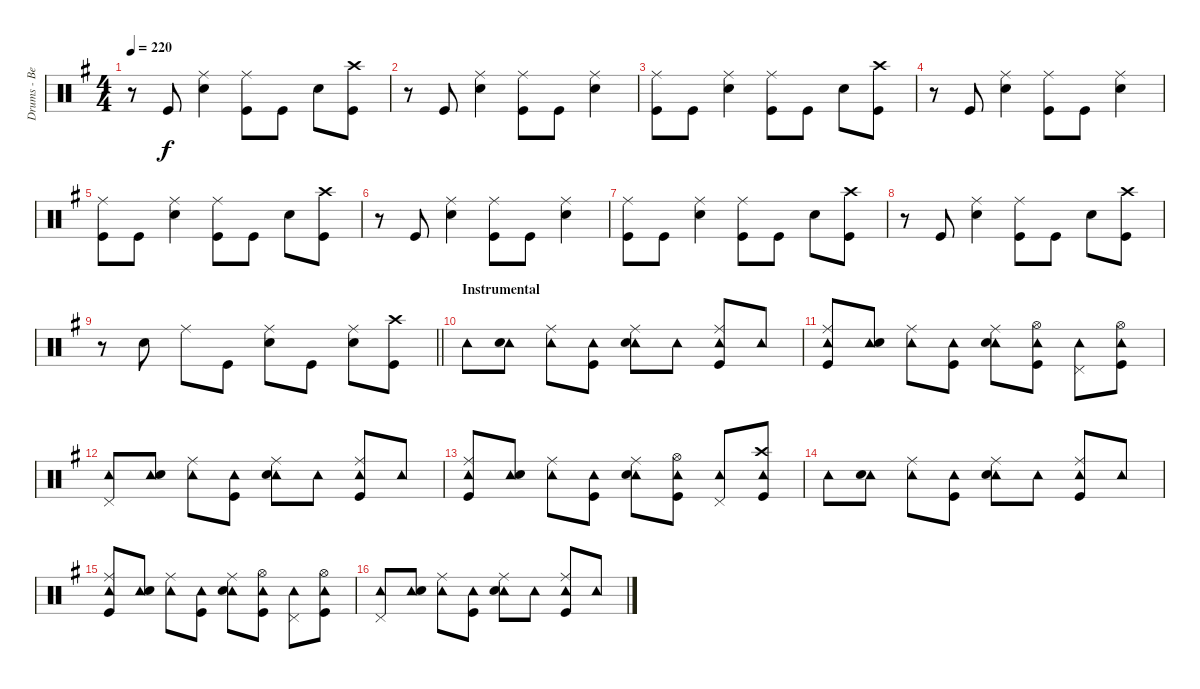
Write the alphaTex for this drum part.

\track ("Drums - Ben Johnston" "Drums - Be") {instrument percussion}
\staff {score}
\articulation defaults
\ts (4 4)
\tempo 220
\clef neutral
\ks eminor
r.8{dy f} "Kick (hit)".8 ("Ride (middle)" "Snare (hit) 2").4 ("Ride (middle)" "Kick (hit)").8 "Kick (hit)".8 "Snare (hit) 2".8 ("Crash high (hit)" "Kick (hit)").8 |
r.8 "Kick (hit)".8 ("Ride (middle)" "Snare (hit) 2").4 ("Ride (middle)" "Kick (hit)").8 "Kick (hit)".8 ("Ride (middle)" "Snare (hit) 2").4 |
("Ride (middle)" "Kick (hit)").8 "Kick (hit)".8 ("Ride (middle)" "Snare (hit) 2").4 ("Ride (middle)" "Kick (hit)").8 "Kick (hit)".8 "Snare (hit) 2".8 ("Crash high (hit)" "Kick (hit)").8 |
r.8 "Kick (hit)".8 ("Ride (middle)" "Snare (hit) 2").4 ("Ride (middle)" "Kick (hit)").8 "Kick (hit)".8 ("Ride (middle)" "Snare (hit) 2").4 |
("Ride (middle)" "Kick (hit)").8 "Kick (hit)".8 ("Ride (middle)" "Snare (hit) 2").4 ("Ride (middle)" "Kick (hit)").8 "Kick (hit)".8 "Snare (hit) 2".8 ("Crash high (hit)" "Kick (hit)").8 |
r.8 "Kick (hit)".8 ("Ride (middle)" "Snare (hit) 2").4 ("Ride (middle)" "Kick (hit)").8 "Kick (hit)".8 ("Ride (middle)" "Snare (hit) 2").4 |
("Ride (middle)" "Kick (hit)").8 "Kick (hit)".8 ("Ride (middle)" "Snare (hit) 2").4 ("Ride (middle)" "Kick (hit)").8 "Kick (hit)".8 "Snare (hit) 2".8 ("Crash high (hit)" "Kick (hit)").8 |
r.8 "Kick (hit)".8 ("Ride (middle)" "Snare (hit) 2").4 ("Ride (middle)" "Kick (hit)").8 "Kick (hit)".8 "Snare (hit) 2".8 ("Crash high (hit)" "Kick (hit)").8 |
\barLineRight lightlight
r.8 "Snare (hit) 2".8 "Ride (middle)".8 "Kick (hit)".8 ("Ride (middle)" "Snare (hit) 2").8 "Kick (hit)".8 ("Ride (middle)" "Snare (hit) 2").8 ("Crash high (hit)" "Kick (hit)").8 |
\section ("" "Instrumental")
"Tambourine (hit)".8 ("Tambourine (hit)" "Snare (hit) 2").8 ("Ride (middle)" "Tambourine (hit)").8 ("Tambourine (hit)" "Kick (hit)").8 ("Ride (middle)" "Tambourine (hit)" "Snare (hit) 2").8 "Tambourine (hit)".8 ("Ride (middle)" "Tambourine (hit)" "Kick (hit)").8 "Tambourine (hit)".8 |
("Ride (middle)" "Tambourine (hit)" "Kick (hit)").8 ("Tambourine (hit)" "Snare (hit) 2").8 ("Ride (middle)" "Tambourine (hit)").8 ("Tambourine (hit)" "Kick (hit)").8 ("Ride (middle)" "Tambourine (hit)" "Snare (hit) 2").8 ("Hi-Hat (open)" "Tambourine (hit)" "Kick (hit)").8 ("Tambourine (hit)" "Pedal Hi-Hat (hit)").8 ("Hi-Hat (open)" "Tambourine (hit)" "Kick (hit)").8 |
("Tambourine (hit)" "Pedal Hi-Hat (hit)").8 ("Tambourine (hit)" "Snare (hit) 2").8 ("Ride (middle)" "Tambourine (hit)").8 ("Tambourine (hit)" "Kick (hit)").8 ("Ride (middle)" "Tambourine (hit)" "Snare (hit) 2").8 "Tambourine (hit)".8 ("Ride (middle)" "Tambourine (hit)" "Kick (hit)").8 "Tambourine (hit)".8 |
("Ride (middle)" "Tambourine (hit)" "Kick (hit)").8 ("Tambourine (hit)" "Snare (hit) 2").8 ("Ride (middle)" "Tambourine (hit)").8 ("Tambourine (hit)" "Kick (hit)").8 ("Ride (middle)" "Tambourine (hit)" "Snare (hit) 2").8 ("Hi-Hat (open)" "Tambourine (hit)" "Kick (hit)").8 ("Tambourine (hit)" "Pedal Hi-Hat (hit)").8 ("Crash high (hit)" "Tambourine (hit)" "Kick (hit)").8 |
"Tambourine (hit)".8 ("Tambourine (hit)" "Snare (hit) 2").8 ("Ride (middle)" "Tambourine (hit)").8 ("Tambourine (hit)" "Kick (hit)").8 ("Ride (middle)" "Tambourine (hit)" "Snare (hit) 2").8 "Tambourine (hit)".8 ("Ride (middle)" "Tambourine (hit)" "Kick (hit)").8 "Tambourine (hit)".8 |
("Ride (middle)" "Tambourine (hit)" "Kick (hit)").8 ("Tambourine (hit)" "Snare (hit) 2").8 ("Ride (middle)" "Tambourine (hit)").8 ("Tambourine (hit)" "Kick (hit)").8 ("Ride (middle)" "Tambourine (hit)" "Snare (hit) 2").8 ("Hi-Hat (open)" "Tambourine (hit)" "Kick (hit)").8 ("Tambourine (hit)" "Pedal Hi-Hat (hit)").8 ("Hi-Hat (open)" "Tambourine (hit)" "Kick (hit)").8 |
("Tambourine (hit)" "Pedal Hi-Hat (hit)").8 ("Tambourine (hit)" "Snare (hit) 2").8 ("Ride (middle)" "Tambourine (hit)").8 ("Tambourine (hit)" "Kick (hit)").8 ("Ride (middle)" "Tambourine (hit)" "Snare (hit) 2").8 "Tambourine (hit)".8 ("Ride (middle)" "Tambourine (hit)" "Kick (hit)").8 "Tambourine (hit)".8
